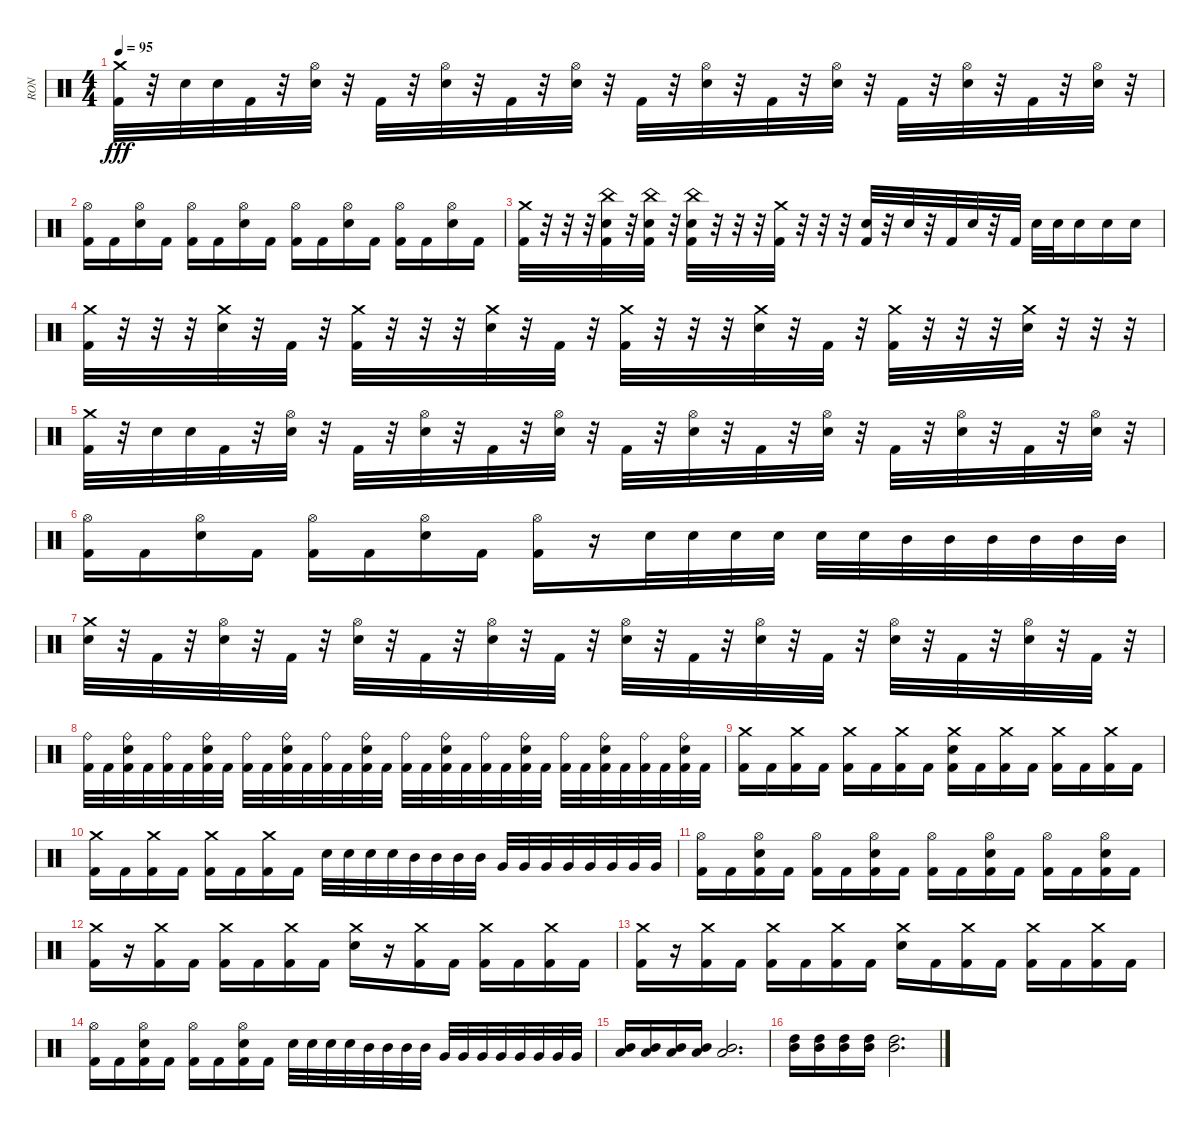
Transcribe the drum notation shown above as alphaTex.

\track ("RON" "RON") {instrument percussion}
\staff {score}
\articulation defaults
\ts (4 4)
\tempo 95
\clef neutral
\ks c
("Crash medium (hit)" "Kick (hit) 2").32{dy fff} r.32 "Electric Snare (hit)".32 "Electric Snare (hit)".32 "Kick (hit) 2".32 r.32 ("Hi-Hat (open)" "Electric Snare (hit)").32 r.32 "Kick (hit) 2".32 r.32 ("Hi-Hat (open)" "Electric Snare (hit)").32 r.32 "Kick (hit) 2".32 r.32 ("Hi-Hat (open)" "Electric Snare (hit)").32 r.32 "Kick (hit) 2".32 r.32 ("Hi-Hat (open)" "Electric Snare (hit)").32 r.32 "Kick (hit) 2".32 r.32 ("Hi-Hat (open)" "Electric Snare (hit)").32 r.32 "Kick (hit) 2".32 r.32 ("Hi-Hat (open)" "Electric Snare (hit)").32 r.32 "Kick (hit) 2".32 r.32 ("Hi-Hat (open)" "Electric Snare (hit)").32 r.32 |
("Hi-Hat (open)" "Kick (hit) 2").16 "Kick (hit) 2".16 ("Hi-Hat (open)" "Electric Snare (hit)").16 "Kick (hit) 2".16 ("Hi-Hat (open)" "Kick (hit) 2").16 "Kick (hit) 2".16 ("Hi-Hat (open)" "Electric Snare (hit)").16 "Kick (hit) 2".16 ("Hi-Hat (open)" "Kick (hit) 2").16 "Kick (hit) 2".16 ("Hi-Hat (open)" "Electric Snare (hit)").16 "Kick (hit) 2".16 ("Hi-Hat (open)" "Kick (hit) 2").16 "Kick (hit) 2".16 ("Hi-Hat (open)" "Electric Snare (hit)").16 "Kick (hit) 2".16 |
("Crash medium (hit)" "Kick (hit) 2").32 r.32 r.32 r.32 ("China (hit)" "Electric Snare (hit)" "Kick (hit) 2").32 r.32 ("China (hit)" "Electric Snare (hit)" "Kick (hit) 2").32 r.32 ("China (hit)" "Electric Snare (hit)" "Kick (hit) 2").32 r.32 r.32 r.32 ("Crash medium (hit)" "Kick (hit) 2").32 r.32 r.32 r.32 ("Electric Snare (hit)" "Kick (hit) 2").32 r.32 "Electric Snare (hit)".32 r.32 "Kick (hit) 2".32 "Electric Snare (hit)".32 r.32 "Kick (hit) 2".32 "Electric Snare (hit)".32 "Electric Snare (hit)".32 "Electric Snare (hit)".16 "Electric Snare (hit)".16 "Electric Snare (hit)".16 |
("Crash medium (hit)" "Kick (hit) 2").32 r.32 r.32 r.32 ("Crash medium (hit)" "Electric Snare (hit)").32 r.32 "Kick (hit) 2".32 r.32 ("Crash medium (hit)" "Kick (hit) 2").32 r.32 r.32 r.32 ("Crash medium (hit)" "Electric Snare (hit)").32 r.32 "Kick (hit) 2".32 r.32 ("Crash medium (hit)" "Kick (hit) 2").32 r.32 r.32 r.32 ("Crash medium (hit)" "Electric Snare (hit)").32 r.32 "Kick (hit) 2".32 r.32 ("Crash medium (hit)" "Kick (hit) 2").32 r.32 r.32 r.32 ("Crash medium (hit)" "Electric Snare (hit)").32 r.32 r.32 r.32 |
("Crash medium (hit)" "Kick (hit) 2").32 r.32 "Electric Snare (hit)".32 "Electric Snare (hit)".32 "Kick (hit) 2".32 r.32 ("Hi-Hat (open)" "Electric Snare (hit)").32 r.32 "Kick (hit) 2".32 r.32 ("Hi-Hat (open)" "Electric Snare (hit)").32 r.32 "Kick (hit) 2".32 r.32 ("Hi-Hat (open)" "Electric Snare (hit)").32 r.32 "Kick (hit) 2".32 r.32 ("Hi-Hat (open)" "Electric Snare (hit)").32 r.32 "Kick (hit) 2".32 r.32 ("Hi-Hat (open)" "Electric Snare (hit)").32 r.32 "Kick (hit) 2".32 r.32 ("Hi-Hat (open)" "Electric Snare (hit)").32 r.32 "Kick (hit) 2".32 r.32 ("Hi-Hat (open)" "Electric Snare (hit)").32 r.32 |
("Hi-Hat (open)" "Kick (hit) 2").16 "Kick (hit) 2".16 ("Hi-Hat (open)" "Electric Snare (hit)").16 "Kick (hit) 2".16 ("Hi-Hat (open)" "Kick (hit) 2").16 "Kick (hit) 2".16 ("Hi-Hat (open)" "Electric Snare (hit)").16 "Kick (hit) 2".16 ("Hi-Hat (open)" "Kick (hit) 2").16 r.16 "Electric Snare (hit)".32 "Electric Snare (hit)".32 "Electric Snare (hit)".32 "Electric Snare (hit)".32 "Electric Snare (hit)".32 "Electric Snare (hit)".32 "Mid Tom (hit)".32 "Mid Tom (hit)".32 "Mid Tom (hit)".32 "Mid Tom (hit)".32 "Mid Tom (hit)".32 "Mid Tom (hit)".32 |
("Crash medium (hit)" "Electric Snare (hit)").32 r.32 "Kick (hit) 2".32 r.32 ("Hi-Hat (open)" "Electric Snare (hit)").32 r.32 "Kick (hit) 2".32 r.32 ("Hi-Hat (open)" "Electric Snare (hit)").32 r.32 "Kick (hit) 2".32 r.32 ("Hi-Hat (open)" "Electric Snare (hit)").32 r.32 "Kick (hit) 2".32 r.32 ("Hi-Hat (open)" "Electric Snare (hit)").32 r.32 "Kick (hit) 2".32 r.32 ("Hi-Hat (open)" "Electric Snare (hit)").32 r.32 "Kick (hit) 2".32 r.32 ("Hi-Hat (open)" "Electric Snare (hit)").32 r.32 "Kick (hit) 2".32 r.32 ("Hi-Hat (open)" "Electric Snare (hit)").32 r.32 "Kick (hit) 2".32 r.32 |
("Ride (bell)" "Kick (hit) 2").32 "Kick (hit) 2".32 ("Ride (bell)" "Electric Snare (hit)" "Kick (hit) 2").32 "Kick (hit) 2".32 ("Ride (bell)" "Kick (hit) 2").32 "Kick (hit) 2".32 ("Ride (bell)" "Electric Snare (hit)" "Kick (hit) 2").32 "Kick (hit) 2".32 ("Ride (bell)" "Kick (hit) 2").32 "Kick (hit) 2".32 ("Ride (bell)" "Electric Snare (hit)" "Kick (hit) 2").32 "Kick (hit) 2".32 ("Ride (bell)" "Kick (hit) 2").32 "Kick (hit) 2".32 ("Ride (bell)" "Electric Snare (hit)" "Kick (hit) 2").32 "Kick (hit) 2".32 ("Ride (bell)" "Kick (hit) 2").32 "Kick (hit) 2".32 ("Ride (bell)" "Electric Snare (hit)" "Kick (hit) 2").32 "Kick (hit) 2".32 ("Ride (bell)" "Kick (hit) 2").32 "Kick (hit) 2".32 ("Ride (bell)" "Electric Snare (hit)" "Kick (hit) 2").32 "Kick (hit) 2".32 ("Ride (bell)" "Kick (hit) 2").32 "Kick (hit) 2".32 ("Ride (bell)" "Electric Snare (hit)" "Kick (hit) 2").32 "Kick (hit) 2".32 ("Ride (bell)" "Kick (hit) 2").32 "Kick (hit) 2".32 ("Ride (bell)" "Electric Snare (hit)" "Kick (hit) 2").32 "Kick (hit) 2".32 |
("Crash medium (hit)" "Kick (hit) 2").16 "Kick (hit) 2".16 ("Crash medium (hit)" "Kick (hit) 2").16 "Kick (hit) 2".16 ("Crash medium (hit)" "Kick (hit) 2").16 "Kick (hit) 2".16 ("Crash medium (hit)" "Kick (hit) 2").16 "Kick (hit) 2".16 ("Crash medium (hit)" "Electric Snare (hit)" "Kick (hit) 2").16 "Kick (hit) 2".16 ("Crash medium (hit)" "Kick (hit) 2").16 "Kick (hit) 2".16 ("Crash medium (hit)" "Kick (hit) 2").16 "Kick (hit) 2".16 ("Crash medium (hit)" "Kick (hit) 2").16 "Kick (hit) 2".16 |
("Crash medium (hit)" "Kick (hit) 2").16 "Kick (hit) 2".16 ("Crash medium (hit)" "Kick (hit) 2").16 "Kick (hit) 2".16 ("Crash medium (hit)" "Kick (hit) 2").16 "Kick (hit) 2".16 ("Crash medium (hit)" "Kick (hit) 2").16 "Kick (hit) 2".16 "Electric Snare (hit)".32 "Electric Snare (hit)".32 "Electric Snare (hit)".32 "Electric Snare (hit)".32 "Mid Tom (hit)".32 "Mid Tom (hit)".32 "Mid Tom (hit)".32 "Mid Tom (hit)".32 "Very Low Tom (hit)".32 "Very Low Tom (hit)".32 "Very Low Tom (hit)".32 "Very Low Tom (hit)".32 "Very Low Tom (hit)".32 "Very Low Tom (hit)".32 "Very Low Tom (hit)".32 "Very Low Tom (hit)".32 |
("Hi-Hat (open)" "Kick (hit) 2").16 "Kick (hit) 2".16 ("Hi-Hat (open)" "Electric Snare (hit)" "Kick (hit) 2").16 "Kick (hit) 2".16 ("Hi-Hat (open)" "Kick (hit) 2").16 "Kick (hit) 2".16 ("Hi-Hat (open)" "Electric Snare (hit)" "Kick (hit) 2").16 "Kick (hit) 2".16 ("Hi-Hat (open)" "Kick (hit) 2").16 "Kick (hit) 2".16 ("Hi-Hat (open)" "Electric Snare (hit)" "Kick (hit) 2").16 "Kick (hit) 2".16 ("Hi-Hat (open)" "Kick (hit) 2").16 "Kick (hit) 2".16 ("Hi-Hat (open)" "Electric Snare (hit)" "Kick (hit) 2").16 "Kick (hit) 2".16 |
("Crash medium (hit)" "Kick (hit) 2").16 r.16 ("Crash medium (hit)" "Kick (hit) 2").16 "Kick (hit) 2".16 ("Crash medium (hit)" "Kick (hit) 2").16 "Kick (hit) 2".16 ("Crash medium (hit)" "Kick (hit) 2").16 "Kick (hit) 2".16 ("Crash medium (hit)" "Electric Snare (hit)").16 r.16 ("Crash medium (hit)" "Kick (hit) 2").16 "Kick (hit) 2".16 ("Crash medium (hit)" "Kick (hit) 2").16 "Kick (hit) 2".16 ("Crash medium (hit)" "Kick (hit) 2").16 "Kick (hit) 2".16 |
("Crash medium (hit)" "Kick (hit) 2").16 r.16 ("Crash medium (hit)" "Kick (hit) 2").16 "Kick (hit) 2".16 ("Crash medium (hit)" "Kick (hit) 2").16 "Kick (hit) 2".16 ("Crash medium (hit)" "Kick (hit) 2").16 "Kick (hit) 2".16 ("Crash medium (hit)" "Electric Snare (hit)").16 "Kick (hit) 2".16 ("Crash medium (hit)" "Kick (hit) 2").16 "Kick (hit) 2".16 ("Crash medium (hit)" "Kick (hit) 2").16 "Kick (hit) 2".16 ("Crash medium (hit)" "Kick (hit) 2").16 "Kick (hit) 2".16 |
("Hi-Hat (open)" "Kick (hit) 2").16 "Kick (hit) 2".16 ("Hi-Hat (open)" "Electric Snare (hit)" "Kick (hit) 2").16 "Kick (hit) 2".16 ("Hi-Hat (open)" "Kick (hit) 2").16 "Kick (hit) 2".16 ("Hi-Hat (open)" "Electric Snare (hit)" "Kick (hit) 2").16 "Kick (hit) 2".16 "Electric Snare (hit)".32 "Electric Snare (hit)".32 "Electric Snare (hit)".32 "Electric Snare (hit)".32 "Mid Tom (hit)".32 "Mid Tom (hit)".32 "Mid Tom (hit)".32 "Mid Tom (hit)".32 "Very Low Tom (hit)".32 "Very Low Tom (hit)".32 "Very Low Tom (hit)".32 "Very Low Tom (hit)".32 "Very Low Tom (hit)".32 "Very Low Tom (hit)".32 "Very Low Tom (hit)".32 "Very Low Tom (hit)".32 |
("Mid Tom (hit)" "Low Tom (hit)").16 ("Mid Tom (hit)" "Low Tom (hit)").16 ("Mid Tom (hit)" "Low Tom (hit)").16 ("Mid Tom (hit)" "Low Tom (hit)").16 ("Mid Tom (hit)" "Low Tom (hit)").2{d} |
("High Tom (hit)" "Mid Tom (hit)").16 ("High Tom (hit)" "Mid Tom (hit)").16 ("High Tom (hit)" "Mid Tom (hit)").16 ("High Tom (hit)" "Mid Tom (hit)").16 ("High Tom (hit)" "Mid Tom (hit)").2{d}
